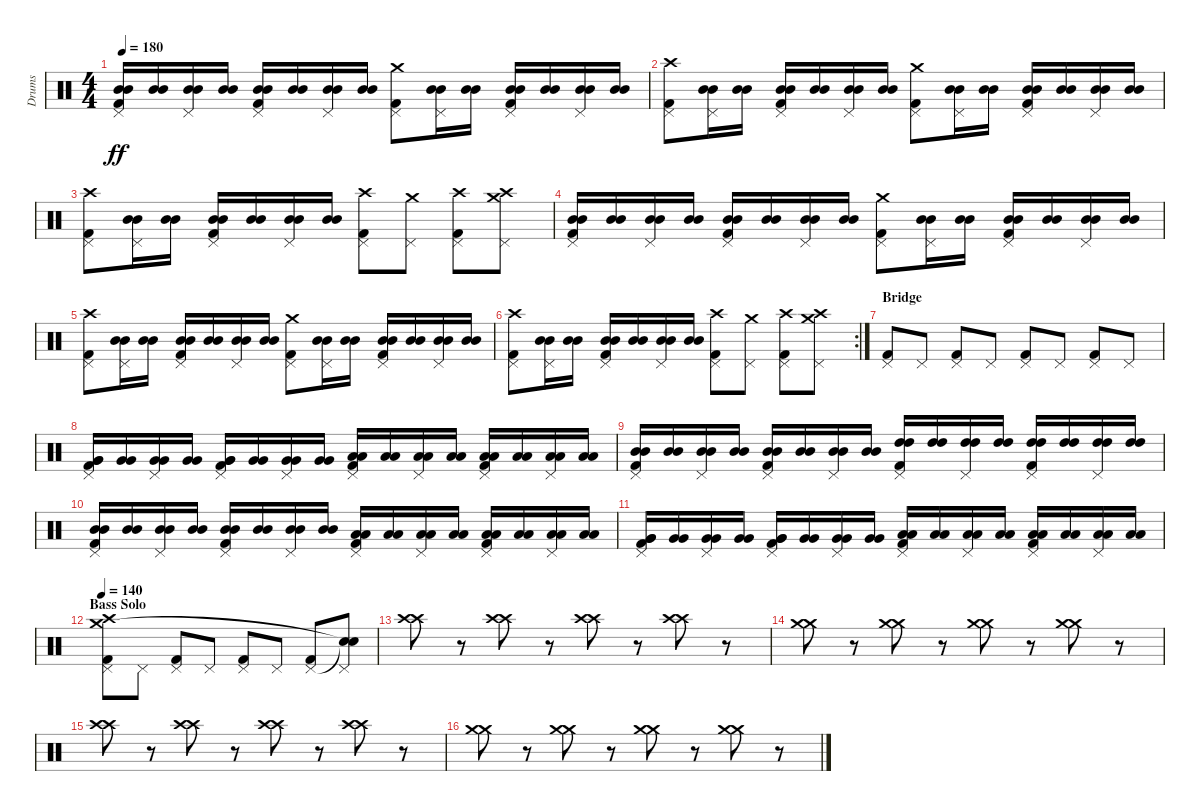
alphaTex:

\track ("Drums" "Drums") {instrument percussion}
\staff {score}
\articulation defaults
\ts (4 4)
\tempo 180
\clef neutral
\ks c
("Pedal Hi-Hat (hit)" "Mid Tom (hit)" "Kick (hit) 2" "Mid Tom (hit)").16{dy ff} ("Mid Tom (hit)" "Mid Tom (hit)").16 ("Pedal Hi-Hat (hit)" "Mid Tom (hit)" "Mid Tom (hit)").16 ("Mid Tom (hit)" "Mid Tom (hit)").16 ("Pedal Hi-Hat (hit)" "Mid Tom (hit)" "Kick (hit) 2" "Mid Tom (hit)").16 ("Mid Tom (hit)" "Mid Tom (hit)").16 ("Pedal Hi-Hat (hit)" "Mid Tom (hit)" "Mid Tom (hit)").16 ("Mid Tom (hit)" "Mid Tom (hit)").16 ("Pedal Hi-Hat (hit)" "Crash medium (hit)" "Kick (hit) 2").8 ("Pedal Hi-Hat (hit)" "Mid Tom (hit)" "Mid Tom (hit)").16 ("Mid Tom (hit)" "Mid Tom (hit)").16 ("Pedal Hi-Hat (hit)" "Mid Tom (hit)" "Kick (hit) 2" "Mid Tom (hit)").16 ("Mid Tom (hit)" "Mid Tom (hit)").16 ("Pedal Hi-Hat (hit)" "Mid Tom (hit)" "Mid Tom (hit)").16 ("Mid Tom (hit)" "Mid Tom (hit)").16 |
("Crash high (hit)" "Pedal Hi-Hat (hit)" "Kick (hit) 2").8 ("Pedal Hi-Hat (hit)" "Mid Tom (hit)" "Mid Tom (hit)").16 ("Mid Tom (hit)" "Mid Tom (hit)").16 ("Pedal Hi-Hat (hit)" "Mid Tom (hit)" "Kick (hit) 2" "Mid Tom (hit)").16 ("Mid Tom (hit)" "Mid Tom (hit)").16 ("Pedal Hi-Hat (hit)" "Mid Tom (hit)" "Mid Tom (hit)").16 ("Mid Tom (hit)" "Mid Tom (hit)").16 ("Pedal Hi-Hat (hit)" "Crash medium (hit)" "Kick (hit) 2").8 ("Pedal Hi-Hat (hit)" "Mid Tom (hit)" "Mid Tom (hit)").16 ("Mid Tom (hit)" "Mid Tom (hit)").16 ("Pedal Hi-Hat (hit)" "Mid Tom (hit)" "Kick (hit) 2" "Mid Tom (hit)").16 ("Mid Tom (hit)" "Mid Tom (hit)").16 ("Pedal Hi-Hat (hit)" "Mid Tom (hit)" "Mid Tom (hit)").16 ("Mid Tom (hit)" "Mid Tom (hit)").16 |
("Crash high (hit)" "Pedal Hi-Hat (hit)" "Kick (hit) 2").8 ("Pedal Hi-Hat (hit)" "Mid Tom (hit)" "Mid Tom (hit)").16 ("Mid Tom (hit)" "Mid Tom (hit)").16 ("Pedal Hi-Hat (hit)" "Mid Tom (hit)" "Kick (hit) 2" "Mid Tom (hit)").16 ("Mid Tom (hit)" "Mid Tom (hit)").16 ("Pedal Hi-Hat (hit)" "Mid Tom (hit)" "Mid Tom (hit)").16 ("Mid Tom (hit)" "Mid Tom (hit)").16 ("Crash high (hit)" "Pedal Hi-Hat (hit)" "Kick (hit) 2").8 ("Pedal Hi-Hat (hit)" "Crash medium (hit)").8 ("Crash high (hit)" "Pedal Hi-Hat (hit)" "Kick (hit) 2").8 ("Crash high (hit)" "Pedal Hi-Hat (hit)" "Crash medium (hit)").8 |
("Pedal Hi-Hat (hit)" "Mid Tom (hit)" "Kick (hit) 2" "Mid Tom (hit)").16 ("Mid Tom (hit)" "Mid Tom (hit)").16 ("Pedal Hi-Hat (hit)" "Mid Tom (hit)" "Mid Tom (hit)").16 ("Mid Tom (hit)" "Mid Tom (hit)").16 ("Pedal Hi-Hat (hit)" "Mid Tom (hit)" "Kick (hit) 2" "Mid Tom (hit)").16 ("Mid Tom (hit)" "Mid Tom (hit)").16 ("Pedal Hi-Hat (hit)" "Mid Tom (hit)" "Mid Tom (hit)").16 ("Mid Tom (hit)" "Mid Tom (hit)").16 ("Pedal Hi-Hat (hit)" "Crash medium (hit)" "Kick (hit) 2").8 ("Pedal Hi-Hat (hit)" "Mid Tom (hit)" "Mid Tom (hit)").16 ("Mid Tom (hit)" "Mid Tom (hit)").16 ("Pedal Hi-Hat (hit)" "Mid Tom (hit)" "Kick (hit) 2" "Mid Tom (hit)").16 ("Mid Tom (hit)" "Mid Tom (hit)").16 ("Pedal Hi-Hat (hit)" "Mid Tom (hit)" "Mid Tom (hit)").16 ("Mid Tom (hit)" "Mid Tom (hit)").16 |
("Crash high (hit)" "Pedal Hi-Hat (hit)" "Kick (hit) 2").8 ("Pedal Hi-Hat (hit)" "Mid Tom (hit)" "Mid Tom (hit)").16 ("Mid Tom (hit)" "Mid Tom (hit)").16 ("Pedal Hi-Hat (hit)" "Mid Tom (hit)" "Kick (hit) 2" "Mid Tom (hit)").16 ("Mid Tom (hit)" "Mid Tom (hit)").16 ("Pedal Hi-Hat (hit)" "Mid Tom (hit)" "Mid Tom (hit)").16 ("Mid Tom (hit)" "Mid Tom (hit)").16 ("Pedal Hi-Hat (hit)" "Crash medium (hit)" "Kick (hit) 2").8 ("Pedal Hi-Hat (hit)" "Mid Tom (hit)" "Mid Tom (hit)").16 ("Mid Tom (hit)" "Mid Tom (hit)").16 ("Pedal Hi-Hat (hit)" "Mid Tom (hit)" "Kick (hit) 2" "Mid Tom (hit)").16 ("Mid Tom (hit)" "Mid Tom (hit)").16 ("Pedal Hi-Hat (hit)" "Mid Tom (hit)" "Mid Tom (hit)").16 ("Mid Tom (hit)" "Mid Tom (hit)").16 |
\rc 2
("Crash high (hit)" "Pedal Hi-Hat (hit)" "Kick (hit) 2").8 ("Pedal Hi-Hat (hit)" "Mid Tom (hit)" "Mid Tom (hit)").16 ("Mid Tom (hit)" "Mid Tom (hit)").16 ("Pedal Hi-Hat (hit)" "Mid Tom (hit)" "Kick (hit) 2" "Mid Tom (hit)").16 ("Mid Tom (hit)" "Mid Tom (hit)").16 ("Pedal Hi-Hat (hit)" "Mid Tom (hit)" "Mid Tom (hit)").16 ("Mid Tom (hit)" "Mid Tom (hit)").16 ("Crash high (hit)" "Pedal Hi-Hat (hit)" "Kick (hit) 2").8 ("Pedal Hi-Hat (hit)" "Crash medium (hit)").8 ("Crash high (hit)" "Pedal Hi-Hat (hit)" "Kick (hit) 2").8 ("Crash high (hit)" "Pedal Hi-Hat (hit)" "Crash medium (hit)").8 |
\section ("" "Bridge")
("Pedal Hi-Hat (hit)" "Kick (hit) 2").8 "Pedal Hi-Hat (hit)".8 ("Pedal Hi-Hat (hit)" "Kick (hit) 2").8 "Pedal Hi-Hat (hit)".8 ("Pedal Hi-Hat (hit)" "Kick (hit) 2").8 "Pedal Hi-Hat (hit)".8 ("Pedal Hi-Hat (hit)" "Kick (hit) 2").8 "Pedal Hi-Hat (hit)".8 |
("Pedal Hi-Hat (hit)" "Very Low Tom (hit)" "Kick (hit) 2" "Very Low Tom (hit)").16 ("Very Low Tom (hit)" "Very Low Tom (hit)").16 ("Pedal Hi-Hat (hit)" "Very Low Tom (hit)" "Very Low Tom (hit)").16 ("Very Low Tom (hit)" "Very Low Tom (hit)").16 ("Pedal Hi-Hat (hit)" "Very Low Tom (hit)" "Kick (hit) 2" "Very Low Tom (hit)").16 ("Very Low Tom (hit)" "Very Low Tom (hit)").16 ("Pedal Hi-Hat (hit)" "Very Low Tom (hit)" "Very Low Tom (hit)").16 ("Very Low Tom (hit)" "Very Low Tom (hit)").16 ("Pedal Hi-Hat (hit)" "Low Tom (hit)" "Kick (hit) 2" "Low Tom (hit)").16 ("Low Tom (hit)" "Low Tom (hit)").16 ("Pedal Hi-Hat (hit)" "Low Tom (hit)" "Low Tom (hit)").16 ("Low Tom (hit)" "Low Tom (hit)").16 ("Pedal Hi-Hat (hit)" "Low Tom (hit)" "Kick (hit) 2" "Low Tom (hit)").16 ("Low Tom (hit)" "Low Tom (hit)").16 ("Pedal Hi-Hat (hit)" "Low Tom (hit)" "Low Tom (hit)").16 ("Low Tom (hit)" "Low Tom (hit)").16 |
("Pedal Hi-Hat (hit)" "Mid Tom (hit)" "Kick (hit) 2" "Mid Tom (hit)").16 ("Mid Tom (hit)" "Mid Tom (hit)").16 ("Pedal Hi-Hat (hit)" "Mid Tom (hit)" "Mid Tom (hit)").16 ("Mid Tom (hit)" "Mid Tom (hit)").16 ("Pedal Hi-Hat (hit)" "Mid Tom (hit)" "Kick (hit) 2" "Mid Tom (hit)").16 ("Mid Tom (hit)" "Mid Tom (hit)").16 ("Pedal Hi-Hat (hit)" "Mid Tom (hit)" "Mid Tom (hit)").16 ("Mid Tom (hit)" "Mid Tom (hit)").16 ("Pedal Hi-Hat (hit)" "High Tom (hit)" "Kick (hit) 2" "High Tom (hit)").16 ("High Tom (hit)" "High Tom (hit)").16 ("Pedal Hi-Hat (hit)" "High Tom (hit)" "High Tom (hit)").16 ("High Tom (hit)" "High Tom (hit)").16 ("Pedal Hi-Hat (hit)" "High Tom (hit)" "Kick (hit) 2" "High Tom (hit)").16 ("High Tom (hit)" "High Tom (hit)").16 ("Pedal Hi-Hat (hit)" "High Tom (hit)" "High Tom (hit)").16 ("High Tom (hit)" "High Tom (hit)").16 |
("Pedal Hi-Hat (hit)" "Mid Tom (hit)" "Kick (hit) 2" "Mid Tom (hit)").16 ("Mid Tom (hit)" "Mid Tom (hit)").16 ("Pedal Hi-Hat (hit)" "Mid Tom (hit)" "Mid Tom (hit)").16 ("Mid Tom (hit)" "Mid Tom (hit)").16 ("Pedal Hi-Hat (hit)" "Mid Tom (hit)" "Kick (hit) 2" "Mid Tom (hit)").16 ("Mid Tom (hit)" "Mid Tom (hit)").16 ("Pedal Hi-Hat (hit)" "Mid Tom (hit)" "Mid Tom (hit)").16 ("Mid Tom (hit)" "Mid Tom (hit)").16 ("Pedal Hi-Hat (hit)" "Low Tom (hit)" "Kick (hit) 2" "Low Tom (hit)").16 ("Low Tom (hit)" "Low Tom (hit)").16 ("Pedal Hi-Hat (hit)" "Low Tom (hit)" "Low Tom (hit)").16 ("Low Tom (hit)" "Low Tom (hit)").16 ("Pedal Hi-Hat (hit)" "Low Tom (hit)" "Kick (hit) 2" "Low Tom (hit)").16 ("Low Tom (hit)" "Low Tom (hit)").16 ("Pedal Hi-Hat (hit)" "Low Tom (hit)" "Low Tom (hit)").16 ("Low Tom (hit)" "Low Tom (hit)").16 |
("Pedal Hi-Hat (hit)" "Very Low Tom (hit)" "Kick (hit) 2" "Very Low Tom (hit)").16 ("Very Low Tom (hit)" "Very Low Tom (hit)").16 ("Pedal Hi-Hat (hit)" "Very Low Tom (hit)" "Very Low Tom (hit)").16 ("Very Low Tom (hit)" "Very Low Tom (hit)").16 ("Pedal Hi-Hat (hit)" "Very Low Tom (hit)" "Kick (hit) 2" "Very Low Tom (hit)").16 ("Very Low Tom (hit)" "Very Low Tom (hit)").16 ("Pedal Hi-Hat (hit)" "Very Low Tom (hit)" "Very Low Tom (hit)").16 ("Very Low Tom (hit)" "Very Low Tom (hit)").16 ("Pedal Hi-Hat (hit)" "Low Floor Tom (hit)" "Kick (hit) 2" "Low Floor Tom (hit)").16 ("Low Floor Tom (hit)" "Low Floor Tom (hit)").16 ("Pedal Hi-Hat (hit)" "Low Floor Tom (hit)" "Low Floor Tom (hit)").16 ("Low Floor Tom (hit)" "Low Floor Tom (hit)").16 ("Pedal Hi-Hat (hit)" "Low Floor Tom (hit)" "Kick (hit) 2" "Low Floor Tom (hit)").16 ("Low Floor Tom (hit)" "Low Floor Tom (hit)").16 ("Pedal Hi-Hat (hit)" "Low Floor Tom (hit)" "Low Floor Tom (hit)").16 ("Low Floor Tom (hit)" "Low Floor Tom (hit)").16 |
\section ("" "Bass Solo")
\tempo 140
("Crash high (hit)" "Pedal Hi-Hat (hit)" "Crash medium (hit)" "Kick (hit) 2").8{volume 13} "Pedal Hi-Hat (hit)".8 ("Pedal Hi-Hat (hit)" "Kick (hit) 2").8 "Pedal Hi-Hat (hit)".8 ("Pedal Hi-Hat (hit)" "Kick (hit) 2").8 "Pedal Hi-Hat (hit)".8 ("Pedal Hi-Hat (hit)" "Kick (hit) 2").8 ("Snare (hit)"{t} "Pedal Hi-Hat (hit)" "Snare (hit)"{t}).8 |
("Crash high (hit)" "Crash high (hit)").8 r.8 ("Crash high (hit)" "Crash high (hit)").8 r.8 ("Crash high (hit)" "Crash high (hit)").8 r.8 ("Crash high (hit)" "Crash high (hit)").8 r.8 |
("Crash medium (hit)" "Crash medium (hit)").8 r.8 ("Crash medium (hit)" "Crash medium (hit)").8 r.8 ("Crash medium (hit)" "Crash medium (hit)").8 r.8 ("Crash medium (hit)" "Crash medium (hit)").8 r.8 |
("Crash high (hit)" "Crash high (hit)").8 r.8 ("Crash high (hit)" "Crash high (hit)").8 r.8 ("Crash high (hit)" "Crash high (hit)").8 r.8 ("Crash high (hit)" "Crash high (hit)").8 r.8 |
("Crash medium (hit)" "Crash medium (hit)").8 r.8 ("Crash medium (hit)" "Crash medium (hit)").8 r.8 ("Crash medium (hit)" "Crash medium (hit)").8 r.8 ("Crash medium (hit)" "Crash medium (hit)").8 r.8
